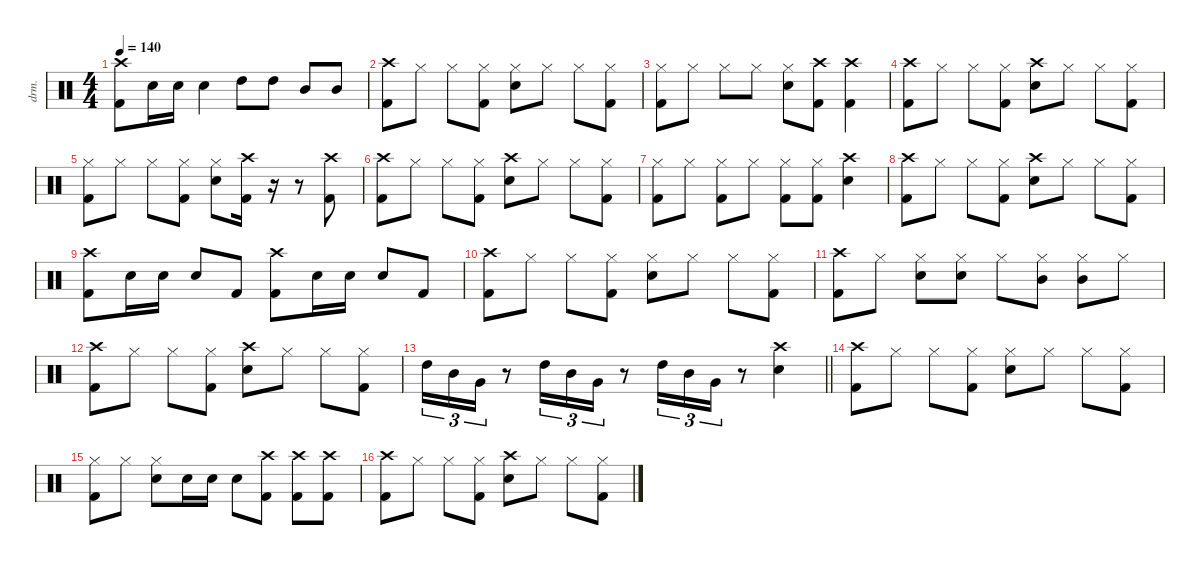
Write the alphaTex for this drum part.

\defaultSystemsLayout 4
\hideDynamics
\bracketExtendMode nobrackets
\otherSystemsTrackNameOrientation horizontal
\track ("Drums" "drm.") {defaultSystemsLayout 4 instrument percussion}
\staff {score}
\articulation defaults
\ts (4 4)
\tempo 140
\clef neutral
\ks c
("Crash high (hit)" "Kick (hit) 2").8{dy f beam Down} "Snare (hit) 2".16{beam Down} "Snare (hit) 2".16{beam Down} "Snare (hit) 2".4{beam Down} "High Tom (hit)".8{beam Down} "High Tom (hit)".8{beam Down} "Mid Tom (hit)".8{beam Up} "Mid Tom (hit)".8{beam Up} |
("Crash high (hit)" "Kick (hit) 2").8{beam Down} "Hi-Hat (closed)".8{beam Down} "Hi-Hat (closed)".8{beam Down} ("Hi-Hat (closed)" "Kick (hit) 2").8{beam Down} ("Hi-Hat (closed)" "Snare (hit) 2").8{beam Down} "Hi-Hat (closed)".8{beam Down} "Hi-Hat (closed)".8{beam Down} ("Hi-Hat (closed)" "Kick (hit) 2").8{beam Down} |
("Hi-Hat (closed)" "Kick (hit) 2").8{beam Down} "Hi-Hat (closed)".8{beam Down} "Hi-Hat (closed)".8{beam Down} "Hi-Hat (closed)".8{beam Down} ("Hi-Hat (closed)" "Snare (hit) 2").8{beam Down} ("Crash high (hit)" "Kick (hit) 2").8{beam Down} ("Crash high (hit)" "Kick (hit) 2").4{beam Down} |
("Crash high (hit)" "Kick (hit) 2").8{beam Down} "Hi-Hat (closed)".8{beam Down} "Hi-Hat (closed)".8{beam Down} ("Hi-Hat (closed)" "Kick (hit) 2").8{beam Down} ("Crash high (hit)" "Snare (hit) 2").8{beam Down} "Hi-Hat (closed)".8{beam Down} "Hi-Hat (closed)".8{beam Down} ("Hi-Hat (closed)" "Kick (hit) 2").8{beam Down} |
("Hi-Hat (closed)" "Kick (hit) 2").8{beam Down} "Hi-Hat (closed)".8{beam Down} "Hi-Hat (closed)".8{beam Down} ("Hi-Hat (closed)" "Kick (hit) 2").8{beam Down} ("Hi-Hat (closed)" "Snare (hit) 2").8{beam Down} ("Crash high (hit)" "Kick (hit) 2").16{beam Down} r.16{beam Down} r.8{beam Down} ("Crash high (hit)" "Kick (hit) 2").8{beam Down} |
("Crash high (hit)" "Kick (hit) 2").8{beam Down} "Hi-Hat (closed)".8{beam Down} "Hi-Hat (closed)".8{beam Down} ("Hi-Hat (closed)" "Kick (hit) 2").8{beam Down} ("Crash high (hit)" "Snare (hit) 2").8{beam Down} "Hi-Hat (closed)".8{beam Down} "Hi-Hat (closed)".8{beam Down} ("Hi-Hat (closed)" "Kick (hit) 2").8{beam Down} |
("Hi-Hat (closed)" "Kick (hit) 2").8{beam Down} "Hi-Hat (closed)".8{beam Down} ("Hi-Hat (closed)" "Kick (hit) 2").8{beam Down} "Hi-Hat (closed)".8{beam Down} ("Hi-Hat (closed)" "Kick (hit) 2").8{beam Down} ("Hi-Hat (closed)" "Kick (hit) 2").8{beam Down} ("Crash high (hit)" "Snare (hit) 2").4{beam Down} |
("Crash high (hit)" "Kick (hit) 2").8{beam Down} "Hi-Hat (closed)".8{beam Down} "Hi-Hat (closed)".8{beam Down} ("Hi-Hat (closed)" "Kick (hit) 2").8{beam Down} ("Crash high (hit)" "Snare (hit) 2").8{beam Down} "Hi-Hat (closed)".8{beam Down} "Hi-Hat (closed)".8{beam Down} ("Hi-Hat (closed)" "Kick (hit) 2").8{beam Down} |
("Crash high (hit)" "Kick (hit) 2").8{beam Down} "Snare (hit) 2".16{beam Down} "Snare (hit) 2".16{beam Down} "Snare (hit) 2".8{beam Up} "Kick (hit) 2".8{beam Up} ("Crash high (hit)" "Kick (hit) 2").8{beam Down} "Snare (hit) 2".16{beam Down} "Snare (hit) 2".16{beam Down} "Snare (hit) 2".8{beam Up} "Kick (hit) 2".8{beam Up} |
("Crash high (hit)" "Kick (hit) 2").8{beam Down} "Hi-Hat (closed)".8{beam Down} "Hi-Hat (closed)".8{beam Down} ("Hi-Hat (closed)" "Kick (hit) 2").8{beam Down} ("Hi-Hat (closed)" "Snare (hit) 2").8{beam Down} "Hi-Hat (closed)".8{beam Down} "Hi-Hat (closed)".8{beam Down} ("Hi-Hat (closed)" "Kick (hit) 2").8{beam Down} |
("Crash high (hit)" "Kick (hit) 2").8{beam Down} "Hi-Hat (closed)".8{beam Down} ("Hi-Hat (closed)" "Snare (hit) 2").8{beam Down} ("Hi-Hat (closed)" "Snare (hit) 2").8{beam Down} "Hi-Hat (closed)".8{beam Down} ("Hi-Hat (closed)" "Mid Tom (hit)").8{beam Down} ("Hi-Hat (closed)" "Mid Tom (hit)").8{beam Down} "Hi-Hat (closed)".8{beam Down} |
("Crash high (hit)" "Kick (hit) 2").8{beam Down} "Hi-Hat (closed)".8{beam Down} "Hi-Hat (closed)".8{beam Down} ("Hi-Hat (closed)" "Kick (hit) 2").8{beam Down} ("Crash high (hit)" "Snare (hit) 2").8{beam Down} "Hi-Hat (closed)".8{beam Down} "Hi-Hat (closed)".8{beam Down} ("Hi-Hat (closed)" "Kick (hit) 2").8{beam Down} |
\barLineRight lightlight "High Tom (hit)".16{tu (3 2) beam Down} "Mid Tom (hit)".16{tu (3 2) beam Down} "Very Low Tom (hit)".16{tu (3 2) beam Down}
r.8{beam Down} "High Tom (hit)".16{tu (3 2) beam Down} "Mid Tom (hit)".16{tu (3 2) beam Down} "Very Low Tom (hit)".16{tu (3 2) beam Down} r.8{beam Down} "High Tom (hit)".16{tu (3 2) beam Down} "Mid Tom (hit)".16{tu (3 2) beam Down} "Very Low Tom (hit)".16{tu (3 2) beam Down} r.8{beam Down} ("Crash high (hit)" "Snare (hit) 2").4{beam Down} |
("Crash high (hit)" "Kick (hit) 2").8{beam Down} "Hi-Hat (closed)".8{beam Down} "Hi-Hat (closed)".8{beam Down} ("Hi-Hat (closed)" "Kick (hit) 2").8{beam Down} ("Hi-Hat (closed)" "Snare (hit) 2").8{beam Down} "Hi-Hat (closed)".8{beam Down} "Hi-Hat (closed)".8{beam Down} ("Hi-Hat (closed)" "Kick (hit) 2").8{beam Down} |
("Hi-Hat (closed)" "Kick (hit) 2").8{beam Down} "Hi-Hat (closed)".8{beam Down} ("Hi-Hat (closed)" "Snare (hit) 2").8{beam Down} "Snare (hit) 2".16{beam Down} "Snare (hit) 2".16{beam Down} "Snare (hit) 2".8{beam Down} ("Crash high (hit)" "Kick (hit) 2").8{beam Down} ("Crash high (hit)" "Kick (hit) 2").8{beam Down} ("Crash high (hit)" "Kick (hit) 2").8{beam Down} |
("Crash high (hit)" "Kick (hit) 2").8{beam Down} "Hi-Hat (closed)".8{beam Down} "Hi-Hat (closed)".8{beam Down} ("Hi-Hat (closed)" "Kick (hit) 2").8{beam Down} ("Crash high (hit)" "Snare (hit) 2").8{beam Down} "Hi-Hat (closed)".8{beam Down} "Hi-Hat (closed)".8{beam Down} ("Hi-Hat (closed)" "Kick (hit) 2").8{beam Down}
